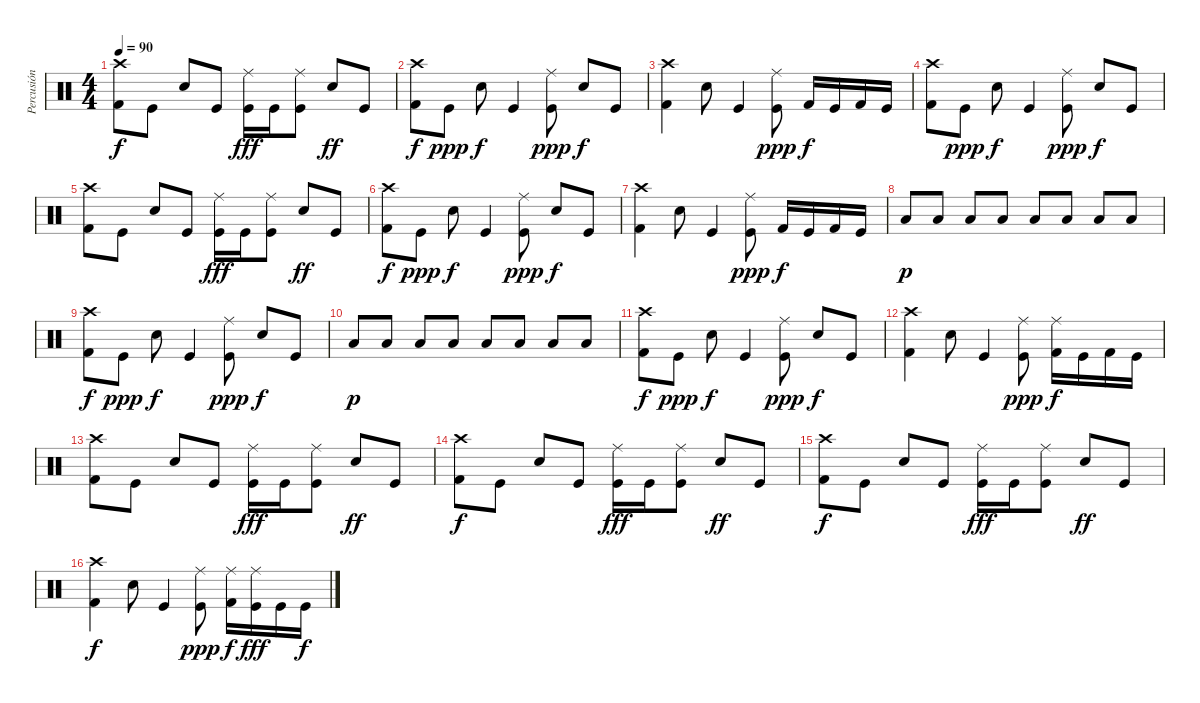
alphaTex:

\track ("Percusión" "Percusión") {instrument percussion}
\staff {score}
\articulation defaults
\ts (4 4)
\tempo 90
\clef neutral
\ks c
("Kick (hit) 2" "Crash high (hit)").8{dy f} "Kick (hit)".8 "Snare (hit) 2".8 "Kick (hit)".8 ("Kick (hit)" "Ride (middle)").16{dy fff} "Kick (hit)".16 ("Kick (hit)" "Ride (middle)").8 "Snare (hit) 2".8{dy ff} "Kick (hit)".8 |
("Kick (hit) 2" "Crash high (hit)").8{dy f} "Kick (hit)".8{dy ppp} "Snare (hit) 2".8{dy f} "Kick (hit)".4 ("Kick (hit)" "Ride (middle)").8{dy ppp} "Snare (hit) 2".8{dy f} "Kick (hit)".8 |
("Kick (hit) 2" "Crash high (hit)").4 "Snare (hit) 2".8 "Kick (hit)".4 ("Kick (hit)" "Ride (middle)").8{dy ppp} "Kick (hit) 2".16{dy f} "Kick (hit)".16 "Kick (hit) 2".16 "Kick (hit)".16 |
("Kick (hit) 2" "Crash high (hit)").8 "Kick (hit)".8{dy ppp} "Snare (hit) 2".8{dy f} "Kick (hit)".4 ("Kick (hit)" "Ride (middle)").8{dy ppp} "Snare (hit) 2".8{dy f} "Kick (hit)".8 |
("Kick (hit) 2" "Crash high (hit)").8 "Kick (hit)".8 "Snare (hit) 2".8 "Kick (hit)".8 ("Kick (hit)" "Ride (middle)").16{dy fff} "Kick (hit)".16 ("Kick (hit)" "Ride (middle)").8 "Snare (hit) 2".8{dy ff} "Kick (hit)".8 |
("Kick (hit) 2" "Crash high (hit)").8{dy f} "Kick (hit)".8{dy ppp} "Snare (hit) 2".8{dy f} "Kick (hit)".4 ("Kick (hit)" "Ride (middle)").8{dy ppp} "Snare (hit) 2".8{dy f} "Kick (hit)".8 |
("Kick (hit) 2" "Crash high (hit)").4 "Snare (hit) 2".8 "Kick (hit)".4 ("Kick (hit)" "Ride (middle)").8{dy ppp} "Kick (hit) 2".16{dy f} "Kick (hit)".16 "Kick (hit) 2".16 "Kick (hit)".16 |
"Low Tom (hit)".8{dy p} "Low Tom (hit)".8 "Low Tom (hit)".8 "Low Tom (hit)".8 "Low Tom (hit)".8 "Low Tom (hit)".8 "Low Tom (hit)".8 "Low Tom (hit)".8 |
("Kick (hit) 2" "Crash high (hit)").8{dy f} "Kick (hit)".8{dy ppp} "Snare (hit) 2".8{dy f} "Kick (hit)".4 ("Kick (hit)" "Ride (middle)").8{dy ppp} "Snare (hit) 2".8{dy f} "Kick (hit)".8 |
"Low Tom (hit)".8{dy p} "Low Tom (hit)".8 "Low Tom (hit)".8 "Low Tom (hit)".8 "Low Tom (hit)".8 "Low Tom (hit)".8 "Low Tom (hit)".8 "Low Tom (hit)".8 |
("Kick (hit) 2" "Crash high (hit)").8{dy f} "Kick (hit)".8{dy ppp} "Snare (hit) 2".8{dy f} "Kick (hit)".4 ("Kick (hit)" "Ride (middle)").8{dy ppp} "Snare (hit) 2".8{dy f} "Kick (hit)".8 |
("Kick (hit) 2" "Crash high (hit)").4 "Snare (hit) 2".8 "Kick (hit)".4 ("Kick (hit)" "Ride (middle)").8{dy ppp} ("Kick (hit) 2" "Ride (middle)").16{dy f} "Kick (hit)".16 "Kick (hit) 2".16 "Kick (hit)".16 |
("Kick (hit) 2" "Crash high (hit)").8 "Kick (hit)".8 "Snare (hit) 2".8 "Kick (hit)".8 ("Kick (hit)" "Ride (middle)").16{dy fff} "Kick (hit)".16 ("Kick (hit)" "Ride (middle)").8 "Snare (hit) 2".8{dy ff} "Kick (hit)".8 |
("Kick (hit) 2" "Crash high (hit)").8{dy f} "Kick (hit)".8 "Snare (hit) 2".8 "Kick (hit)".8 ("Kick (hit)" "Ride (middle)").16{dy fff} "Kick (hit)".16 ("Kick (hit)" "Ride (middle)").8 "Snare (hit) 2".8{dy ff} "Kick (hit)".8 |
("Kick (hit) 2" "Crash high (hit)").8{dy f} "Kick (hit)".8 "Snare (hit) 2".8 "Kick (hit)".8 ("Kick (hit)" "Ride (middle)").16{dy fff} "Kick (hit)".16 ("Kick (hit)" "Ride (middle)").8 "Snare (hit) 2".8{dy ff} "Kick (hit)".8 |
("Kick (hit) 2" "Crash high (hit)").4{dy f} "Snare (hit) 2".8 "Kick (hit)".4 ("Kick (hit)" "Ride (middle)").8{dy ppp} ("Kick (hit) 2" "Ride (middle)").16{dy f} ("Kick (hit)" "Ride (middle)").16{dy fff} "Kick (hit)".16 "Kick (hit)".16{dy f}
